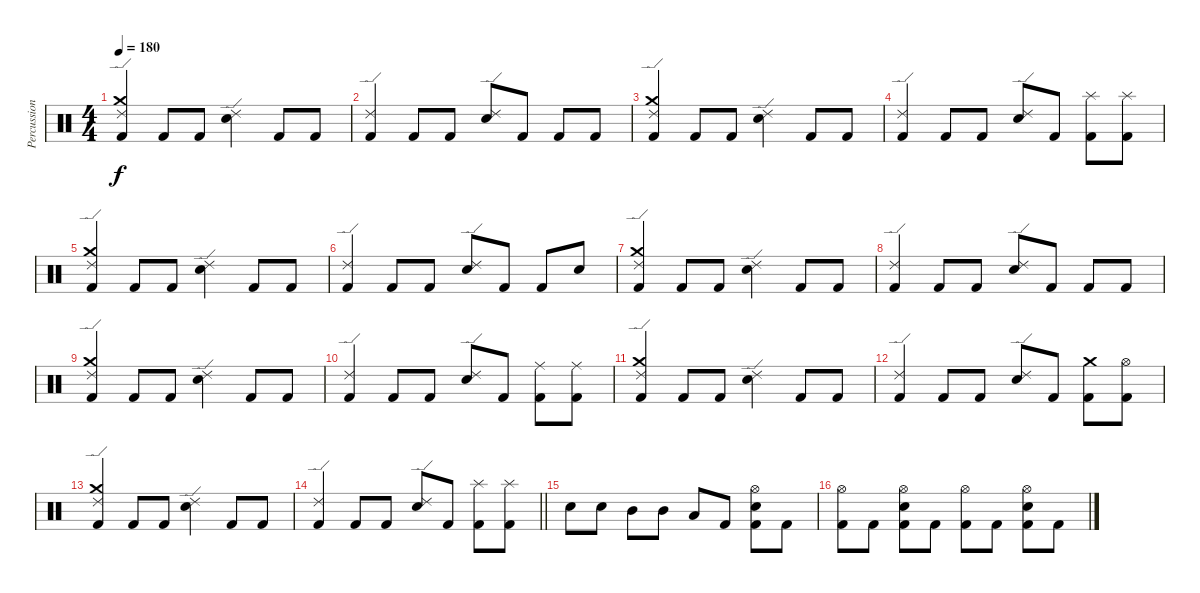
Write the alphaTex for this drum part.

\track ("Percussions" "Percussion") {instrument percussion}
\staff {score}
\articulation defaults
\ts (4 4)
\tempo 180
\clef neutral
\ks c
("Ride (edge) 2" "Crash medium (hit)" "Kick (hit) 2").4{dy f} "Kick (hit) 2".8 "Kick (hit) 2".8 ("Ride (edge) 2" "Electric Snare (hit)").4 "Kick (hit) 2".8 "Kick (hit) 2".8 |
("Ride (edge) 2" "Kick (hit) 2").4 "Kick (hit) 2".8 "Kick (hit) 2".8 ("Ride (edge) 2" "Electric Snare (hit)").8 "Kick (hit) 2".8 "Kick (hit) 2".8 "Kick (hit) 2".8 |
("Ride (edge) 2" "Crash medium (hit)" "Kick (hit) 2").4 "Kick (hit) 2".8 "Kick (hit) 2".8 ("Ride (edge) 2" "Electric Snare (hit)").4 "Kick (hit) 2".8 "Kick (hit) 2".8 |
("Ride (edge) 2" "Kick (hit) 2").4 "Kick (hit) 2".8 "Kick (hit) 2".8 ("Ride (edge) 2" "Electric Snare (hit)").8 "Kick (hit) 2".8 ("Splash (hit)" "Kick (hit) 2").8 ("Splash (hit)" "Kick (hit) 2").8 |
("Ride (edge) 2" "Crash medium (hit)" "Kick (hit) 2").4 "Kick (hit) 2".8 "Kick (hit) 2".8 ("Ride (edge) 2" "Electric Snare (hit)").4 "Kick (hit) 2".8 "Kick (hit) 2".8 |
("Ride (edge) 2" "Kick (hit) 2").4 "Kick (hit) 2".8 "Kick (hit) 2".8 ("Ride (edge) 2" "Electric Snare (hit)").8 "Kick (hit) 2".8 "Kick (hit) 2".8 "Electric Snare (hit)".8 |
("Ride (edge) 2" "Crash medium (hit)" "Kick (hit) 2").4 "Kick (hit) 2".8 "Kick (hit) 2".8 ("Ride (edge) 2" "Electric Snare (hit)").4 "Kick (hit) 2".8 "Kick (hit) 2".8 |
("Ride (edge) 2" "Kick (hit) 2").4 "Kick (hit) 2".8 "Kick (hit) 2".8 ("Ride (edge) 2" "Electric Snare (hit)").8 "Kick (hit) 2".8 "Kick (hit) 2".8 "Kick (hit) 2".8 |
("Ride (edge) 2" "Crash medium (hit)" "Kick (hit) 2").4 "Kick (hit) 2".8 "Kick (hit) 2".8 ("Ride (edge) 2" "Electric Snare (hit)").4 "Kick (hit) 2".8 "Kick (hit) 2".8 |
("Ride (edge) 2" "Kick (hit) 2").4 "Kick (hit) 2".8 "Kick (hit) 2".8 ("Ride (edge) 2" "Electric Snare (hit)").8 "Kick (hit) 2".8 ("Ride (middle)" "Kick (hit) 2").8 ("Ride (middle)" "Kick (hit) 2").8 |
("Ride (edge) 2" "Crash medium (hit)" "Kick (hit) 2").4 "Kick (hit) 2".8 "Kick (hit) 2".8 ("Ride (edge) 2" "Electric Snare (hit)").4 "Kick (hit) 2".8 "Kick (hit) 2".8 |
("Ride (edge) 2" "Kick (hit) 2").4 "Kick (hit) 2".8 "Kick (hit) 2".8 ("Ride (edge) 2" "Electric Snare (hit)").8 "Kick (hit) 2".8 ("Crash medium (hit)" "Kick (hit) 2").8 ("Hi-Hat (open)" "Kick (hit) 2").8 |
("Ride (edge) 2" "Crash medium (hit)" "Kick (hit) 2").4 "Kick (hit) 2".8 "Kick (hit) 2".8 ("Ride (edge) 2" "Electric Snare (hit)").4 "Kick (hit) 2".8 "Kick (hit) 2".8 |
\barLineRight lightlight
("Ride (edge) 2" "Kick (hit) 2").4 "Kick (hit) 2".8 "Kick (hit) 2".8 ("Ride (edge) 2" "Electric Snare (hit)").8 "Kick (hit) 2".8 ("Splash (hit)" "Kick (hit) 2").8 ("Splash (hit)" "Kick (hit) 2").8 |
"Electric Snare (hit)".8 "Electric Snare (hit)".8 "Mid Tom (hit)".8 "Mid Tom (hit)".8 "Low Tom (hit)".8 "Kick (hit) 2".8 ("Hi-Hat (open)" "Electric Snare (hit)" "Kick (hit) 2").8 "Kick (hit) 2".8 |
("Hi-Hat (open)" "Kick (hit) 2").8 "Kick (hit) 2".8 ("Hi-Hat (open)" "Electric Snare (hit)" "Kick (hit) 2").8 "Kick (hit) 2".8 ("Hi-Hat (open)" "Kick (hit) 2").8 "Kick (hit) 2".8 ("Hi-Hat (open)" "Electric Snare (hit)" "Kick (hit) 2").8 "Kick (hit) 2".8
